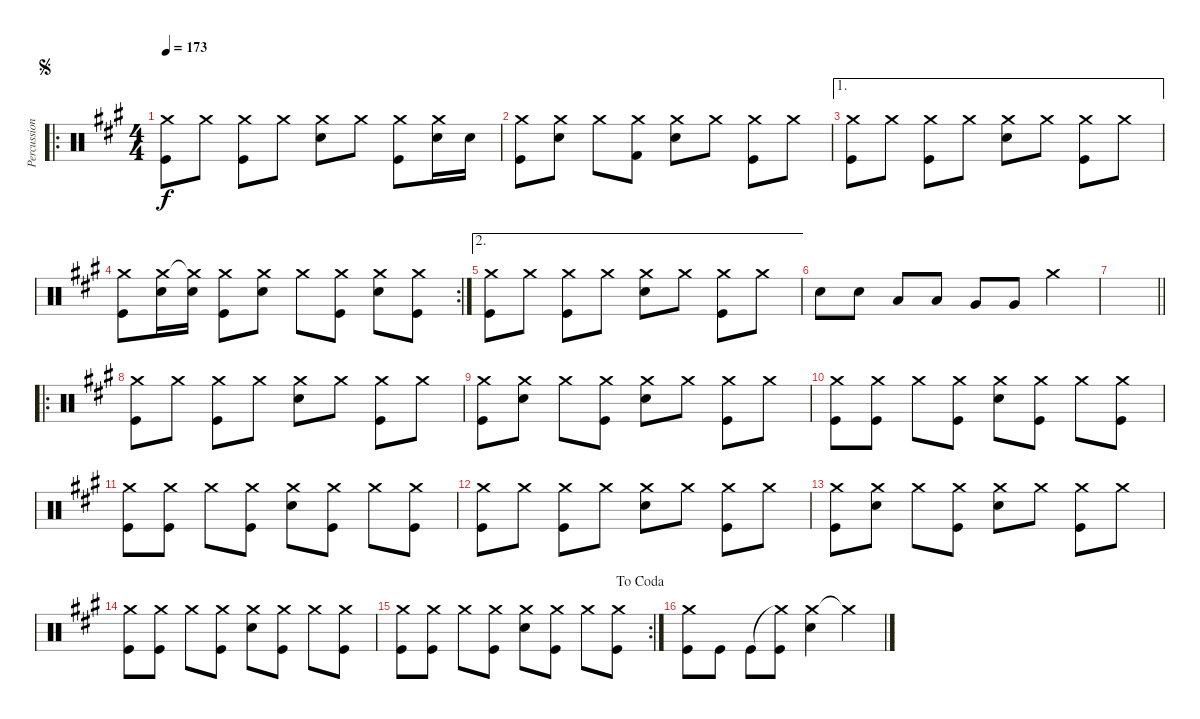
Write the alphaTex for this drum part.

\track ("Percussions" "Percussion") {instrument percussion}
\staff {score}
\articulation defaults
\ro
\ts (4 4)
\jump segno
\tempo 173
\clef neutral
\ks a
("Crash medium (hit)" "Kick (hit)").8{dy f} "Crash medium (hit)".8 ("Crash medium (hit)" "Kick (hit)").8 "Crash medium (hit)".8 ("Crash medium (hit)" "Electric Snare (hit)").8 "Crash medium (hit)".8 ("Crash medium (hit)" "Kick (hit)").8 ("Crash medium (hit)" "Electric Snare (hit)").16 "Electric Snare (hit)".16 |
("Crash medium (hit)" "Kick (hit)").8 ("Crash medium (hit)" "Electric Snare (hit)").8 "Crash medium (hit)".8 ("Crash medium (hit)" "Kick (hit) 2").8 ("Crash medium (hit)" "Electric Snare (hit)").8 "Crash medium (hit)".8 ("Crash medium (hit)" "Kick (hit)").8 "Crash medium (hit)".8 |
\ae 1
("Crash medium (hit)" "Kick (hit)").8 "Crash medium (hit)".8 ("Crash medium (hit)" "Kick (hit)").8 "Crash medium (hit)".8 ("Crash medium (hit)" "Electric Snare (hit)").8 "Crash medium (hit)".8 ("Crash medium (hit)" "Kick (hit)").8 "Crash medium (hit)".8 |
\rc 2
("Crash medium (hit)" "Kick (hit)").8 ("Crash medium (hit)" "Electric Snare (hit)").16 ("Crash medium (hit)"{t} "Electric Snare (hit)").16 ("Crash medium (hit)" "Kick (hit)").8 ("Crash medium (hit)" "Electric Snare (hit)").8 "Crash medium (hit)".8 ("Crash medium (hit)" "Kick (hit)").8 ("Crash medium (hit)" "Electric Snare (hit)").8 ("Crash medium (hit)" "Kick (hit)").8 |
\ae 2
("Crash medium (hit)" "Kick (hit)").8 "Crash medium (hit)".8 ("Crash medium (hit)" "Kick (hit)").8 "Crash medium (hit)".8 ("Crash medium (hit)" "Electric Snare (hit)").8 "Crash medium (hit)".8 ("Crash medium (hit)" "Kick (hit)").8 "Crash medium (hit)".8 |
"Electric Snare (hit)".8 "Electric Snare (hit)".8 "Low Floor Tom (hit)".8 "Low Floor Tom (hit)".8 "Very Low Tom (hit)".8 "Very Low Tom (hit)".8 "Crash medium (hit)".4 |
\barLineRight lightlight
|
\ro
("Crash medium (hit)" "Kick (hit)").8 "Crash medium (hit)".8 ("Crash medium (hit)" "Kick (hit)").8 "Crash medium (hit)".8 ("Crash medium (hit)" "Electric Snare (hit)").8 "Crash medium (hit)".8 ("Crash medium (hit)" "Kick (hit)").8 "Crash medium (hit)".8 |
("Crash medium (hit)" "Kick (hit)").8 ("Crash medium (hit)" "Electric Snare (hit)").8 "Crash medium (hit)".8 ("Crash medium (hit)" "Kick (hit)").8 ("Crash medium (hit)" "Electric Snare (hit)").8 "Crash medium (hit)".8 ("Crash medium (hit)" "Kick (hit)").8 "Crash medium (hit)".8 |
("Crash medium (hit)" "Kick (hit)").8 ("Crash medium (hit)" "Kick (hit)").8 "Crash medium (hit)".8 ("Crash medium (hit)" "Kick (hit)").8 ("Crash medium (hit)" "Electric Snare (hit)").8 ("Crash medium (hit)" "Kick (hit)").8 "Crash medium (hit)".8 ("Crash medium (hit)" "Kick (hit)").8 |
("Crash medium (hit)" "Kick (hit)").8 ("Crash medium (hit)" "Kick (hit)").8 "Crash medium (hit)".8 ("Crash medium (hit)" "Kick (hit)").8 ("Crash medium (hit)" "Electric Snare (hit)").8 ("Crash medium (hit)" "Kick (hit)").8 "Crash medium (hit)".8 ("Crash medium (hit)" "Kick (hit)").8 |
("Crash medium (hit)" "Kick (hit)").8 "Crash medium (hit)".8 ("Crash medium (hit)" "Kick (hit)").8 "Crash medium (hit)".8 ("Crash medium (hit)" "Electric Snare (hit)").8 "Crash medium (hit)".8 ("Crash medium (hit)" "Kick (hit)").8 "Crash medium (hit)".8 |
("Crash medium (hit)" "Kick (hit)").8 ("Crash medium (hit)" "Electric Snare (hit)").8 "Crash medium (hit)".8 ("Crash medium (hit)" "Kick (hit)").8 ("Crash medium (hit)" "Electric Snare (hit)").8 "Crash medium (hit)".8 ("Crash medium (hit)" "Kick (hit)").8 "Crash medium (hit)".8 |
("Crash medium (hit)" "Kick (hit)").8 ("Crash medium (hit)" "Kick (hit)").8 "Crash medium (hit)".8 ("Crash medium (hit)" "Kick (hit)").8 ("Crash medium (hit)" "Electric Snare (hit)").8 ("Crash medium (hit)" "Kick (hit)").8 "Crash medium (hit)".8 ("Crash medium (hit)" "Kick (hit)").8 |
\rc 2
\jump dacoda
("Crash medium (hit)" "Kick (hit)").8 ("Crash medium (hit)" "Kick (hit)").8 "Crash medium (hit)".8 ("Crash medium (hit)" "Kick (hit)").8 ("Crash medium (hit)" "Electric Snare (hit)").8 ("Crash medium (hit)" "Kick (hit)").8 "Crash medium (hit)".8 ("Crash medium (hit)" "Kick (hit)").8 |
("Crash medium (hit)" "Kick (hit)").8 "Kick (hit)".8 "Kick (hit)".8 ("Crash medium (hit)"{t} "Kick (hit)").8 ("Crash medium (hit)" "Electric Snare (hit)").4 "Crash medium (hit)"{t}.4
